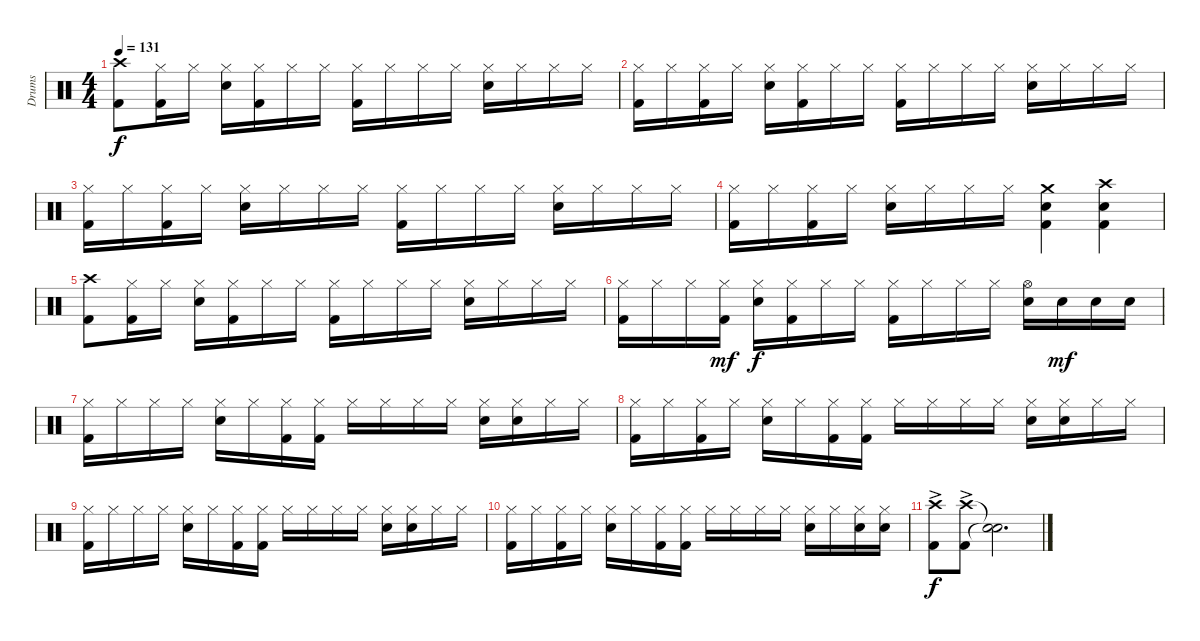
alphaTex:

\track ("Drums" "Drums") {instrument percussion}
\staff {score}
\articulation defaults
\ts (4 4)
\tempo 131
\clef neutral
\ks c
("Crash high (hit)" "Kick (hit) 2").8{dy f} ("Hi-Hat (closed)" "Kick (hit) 2").16 "Hi-Hat (closed)".16 ("Hi-Hat (closed)" "Snare (hit) 2").16 ("Hi-Hat (closed)" "Kick (hit) 2").16 "Hi-Hat (closed)".16 "Hi-Hat (closed)".16 ("Hi-Hat (closed)" "Kick (hit) 2").16 "Hi-Hat (closed)".16 "Hi-Hat (closed)".16 "Hi-Hat (closed)".16 ("Hi-Hat (closed)" "Snare (hit) 2").16 "Hi-Hat (closed)".16 "Hi-Hat (closed)".16 "Hi-Hat (closed)".16 |
("Hi-Hat (closed)" "Kick (hit) 2").16 "Hi-Hat (closed)".16 ("Hi-Hat (closed)" "Kick (hit) 2").16 "Hi-Hat (closed)".16 ("Hi-Hat (closed)" "Snare (hit) 2").16 ("Hi-Hat (closed)" "Kick (hit) 2").16 "Hi-Hat (closed)".16 "Hi-Hat (closed)".16 ("Hi-Hat (closed)" "Kick (hit) 2").16 "Hi-Hat (closed)".16 "Hi-Hat (closed)".16 "Hi-Hat (closed)".16 ("Hi-Hat (closed)" "Snare (hit) 2").16 "Hi-Hat (closed)".16 "Hi-Hat (closed)".16 "Hi-Hat (closed)".16 |
("Hi-Hat (closed)" "Kick (hit) 2").16 "Hi-Hat (closed)".16 ("Hi-Hat (closed)" "Kick (hit) 2").16 "Hi-Hat (closed)".16 ("Hi-Hat (closed)" "Snare (hit) 2").16 "Hi-Hat (closed)".16 "Hi-Hat (closed)".16 "Hi-Hat (closed)".16 ("Hi-Hat (closed)" "Kick (hit) 2").16 "Hi-Hat (closed)".16 "Hi-Hat (closed)".16 "Hi-Hat (closed)".16 ("Hi-Hat (closed)" "Snare (hit) 2").16 "Hi-Hat (closed)".16 "Hi-Hat (closed)".16 "Hi-Hat (closed)".16 |
("Hi-Hat (closed)" "Kick (hit) 2").16 "Hi-Hat (closed)".16 ("Hi-Hat (closed)" "Kick (hit) 2").16 "Hi-Hat (closed)".16 ("Hi-Hat (closed)" "Snare (hit) 2").16 "Hi-Hat (closed)".16 "Hi-Hat (closed)".16 "Hi-Hat (closed)".16 ("Crash medium (hit)" "Snare (hit) 2" "Kick (hit) 2").4 ("Crash high (hit)" "Snare (hit) 2" "Kick (hit) 2").4 |
("Crash high (hit)" "Kick (hit) 2").8 ("Hi-Hat (closed)" "Kick (hit) 2").16 "Hi-Hat (closed)".16 ("Hi-Hat (closed)" "Snare (hit) 2").16 ("Hi-Hat (closed)" "Kick (hit) 2").16 "Hi-Hat (closed)".16 "Hi-Hat (closed)".16 ("Hi-Hat (closed)" "Kick (hit) 2").16 "Hi-Hat (closed)".16 "Hi-Hat (closed)".16 "Hi-Hat (closed)".16 ("Hi-Hat (closed)" "Snare (hit) 2").16 "Hi-Hat (closed)".16 "Hi-Hat (closed)".16 "Hi-Hat (closed)".16 |
("Hi-Hat (closed)" "Kick (hit) 2").16 "Hi-Hat (closed)".16 "Hi-Hat (closed)".16 ("Hi-Hat (closed)" "Kick (hit) 2").16{dy mf} ("Hi-Hat (closed)" "Snare (hit) 2").16{dy f} ("Hi-Hat (closed)" "Kick (hit) 2").16 "Hi-Hat (closed)".16 "Hi-Hat (closed)".16 ("Hi-Hat (closed)" "Kick (hit) 2").16 "Hi-Hat (closed)".16 "Hi-Hat (closed)".16 "Hi-Hat (closed)".16 ("Hi-Hat (open)" "Snare (hit) 2").16 "Snare (hit) 2".16{dy mf} "Snare (hit) 2".16 "Snare (hit) 2".16 |
("Hi-Hat (closed)" "Kick (hit) 2").16 "Hi-Hat (closed)".16 "Hi-Hat (closed)".16 "Hi-Hat (closed)".16 ("Hi-Hat (closed)" "Snare (hit) 2").16 "Hi-Hat (closed)".16 ("Hi-Hat (closed)" "Kick (hit) 2").16 ("Hi-Hat (closed)" "Kick (hit) 2").16 "Hi-Hat (closed)".16 "Hi-Hat (closed)".16 "Hi-Hat (closed)".16 "Hi-Hat (closed)".16 ("Hi-Hat (closed)" "Snare (hit) 2").16 ("Hi-Hat (closed)" "Snare (hit) 2").16 "Hi-Hat (closed)".16 "Hi-Hat (closed)".16 |
("Hi-Hat (closed)" "Kick (hit) 2").16 "Hi-Hat (closed)".16 ("Hi-Hat (closed)" "Kick (hit) 2").16 "Hi-Hat (closed)".16 ("Hi-Hat (closed)" "Snare (hit) 2").16 "Hi-Hat (closed)".16 ("Hi-Hat (closed)" "Kick (hit) 2").16 ("Hi-Hat (closed)" "Kick (hit) 2").16 "Hi-Hat (closed)".16 "Hi-Hat (closed)".16 "Hi-Hat (closed)".16 "Hi-Hat (closed)".16 ("Hi-Hat (closed)" "Snare (hit) 2").16 ("Hi-Hat (closed)" "Snare (hit) 2").16 "Hi-Hat (closed)".16 "Hi-Hat (closed)".16 |
("Hi-Hat (closed)" "Kick (hit) 2").16 "Hi-Hat (closed)".16 "Hi-Hat (closed)".16 "Hi-Hat (closed)".16 ("Hi-Hat (closed)" "Snare (hit) 2").16 "Hi-Hat (closed)".16 ("Hi-Hat (closed)" "Kick (hit) 2").16 ("Hi-Hat (closed)" "Kick (hit) 2").16 "Hi-Hat (closed)".16 "Hi-Hat (closed)".16 "Hi-Hat (closed)".16 "Hi-Hat (closed)".16 ("Hi-Hat (closed)" "Snare (hit) 2").16 ("Hi-Hat (closed)" "Snare (hit) 2").16 "Hi-Hat (closed)".16 "Hi-Hat (closed)".16 |
("Hi-Hat (closed)" "Kick (hit) 2").16 "Hi-Hat (closed)".16 ("Hi-Hat (closed)" "Kick (hit) 2").16 "Hi-Hat (closed)".16 ("Hi-Hat (closed)" "Snare (hit) 2").16 "Hi-Hat (closed)".16 ("Hi-Hat (closed)" "Kick (hit) 2").16 ("Hi-Hat (closed)" "Kick (hit) 2").16 "Hi-Hat (closed)".16 "Hi-Hat (closed)".16 "Hi-Hat (closed)".16 "Hi-Hat (closed)".16 ("Hi-Hat (closed)" "Snare (hit) 2").16 "Hi-Hat (closed)".16 ("Hi-Hat (closed)" "Snare (hit) 2").16 ("Hi-Hat (closed)" "Snare (hit) 2").16 |
("Crash high (hit)"{ac} "Kick (hit) 2"{ac}).8{dy f} ("Crash high (hit)"{ac} "Kick (hit) 2"{ac}).8 ("Snare (hit)"{t} "Snare (hit)"{t}).2{d}
